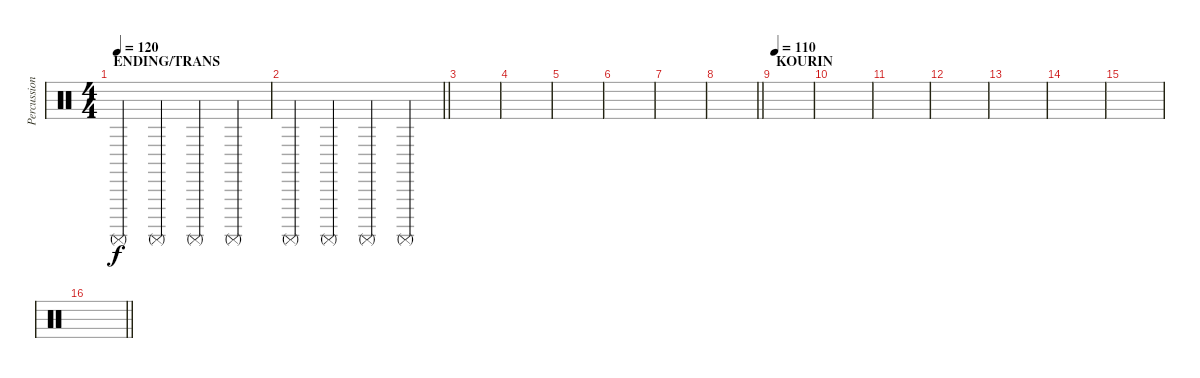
\track ("Percussion" "Percussion") {instrument percussion}
\staff {score}
\articulation defaults
\ts (4 4)
\section ("" "ENDING/TRANS")
\tempo 120
\clef neutral
\ks c "Surdo (mute)".4{dy f} "Surdo (mute)".4 "Surdo (mute)".4 "Surdo (mute)".4
|
\barLineRight lightlight "Surdo (mute)".4 "Surdo (mute)".4 "Surdo (mute)".4 "Surdo (mute)".4
|
|
|
|
|
|
\barLineRight lightlight
|
\section ("" "KOURIN")
\tempo 110
|
|
|
|
|
|
|
\barLineRight lightlight
